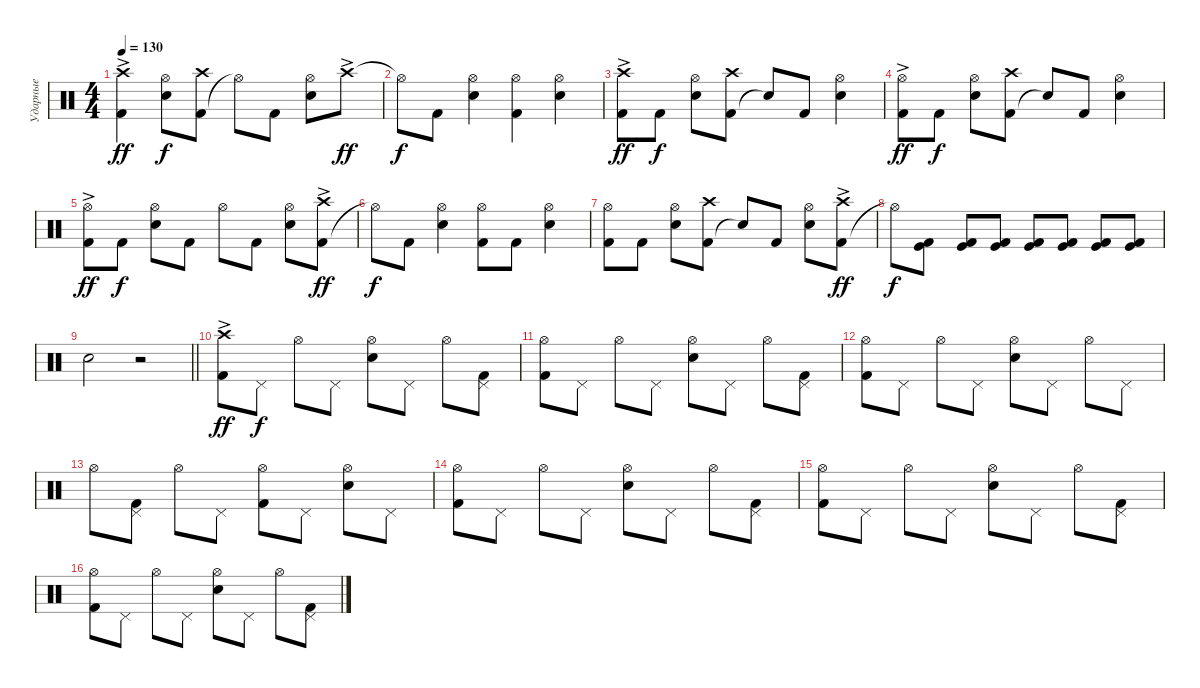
\track ("Ударные" "Ударные") {instrument percussion}
\staff {score}
\articulation defaults
\ts (4 4)
\tempo 130
\clef neutral
\ks c
("Kick (hit) 2" "Crash high (hit)"{ac}).4{dy ff} ("Snare (hit) 2" "Hi-Hat (open)").8{dy f} ("Kick (hit) 2" "Crash high (hit)").8 "Hi-Hat (open)"{t}.8 "Kick (hit) 2".8 ("Snare (hit) 2" "Hi-Hat (open)").8 "Crash high (hit)"{ac}.8{dy ff} |
"Hi-Hat (open)"{t}.8{dy f} "Kick (hit) 2".8 ("Snare (hit) 2" "Hi-Hat (open)").4 ("Kick (hit) 2" "Hi-Hat (open)").4 ("Snare (hit) 2" "Hi-Hat (open)").4 |
("Kick (hit) 2" "Crash high (hit)"{ac}).8{dy ff} "Kick (hit) 2".8{dy f} ("Snare (hit) 2" "Hi-Hat (open)").8 ("Kick (hit) 2" "Crash high (hit)").8 "Snare (hit)"{t}.8 "Kick (hit) 2".8 ("Snare (hit) 2" "Hi-Hat (open)").4 |
("Kick (hit) 2" "Hi-Hat (open)"{ac}).8{dy ff} "Kick (hit) 2".8{dy f} ("Snare (hit) 2" "Hi-Hat (open)").8 ("Kick (hit) 2" "Crash high (hit)").8 "Snare (hit)"{t}.8 "Kick (hit) 2".8 ("Snare (hit) 2" "Hi-Hat (open)").4 |
("Kick (hit) 2" "Hi-Hat (open)"{ac}).8{dy ff} "Kick (hit) 2".8{dy f} ("Snare (hit) 2" "Hi-Hat (open)").8 "Kick (hit) 2".8 "Hi-Hat (open)".8 "Kick (hit) 2".8 ("Snare (hit) 2" "Hi-Hat (open)").8 ("Kick (hit) 2" "Crash high (hit)"{ac}).8{dy ff} |
"Hi-Hat (open)"{t}.8{dy f} "Kick (hit) 2".8 ("Snare (hit) 2" "Hi-Hat (open)").4 ("Kick (hit) 2" "Hi-Hat (open)").8 "Kick (hit) 2".8 ("Snare (hit) 2" "Hi-Hat (open)").4 |
("Kick (hit) 2" "Hi-Hat (open)").8 "Kick (hit) 2".8 ("Snare (hit) 2" "Hi-Hat (open)").8 ("Kick (hit) 2" "Crash high (hit)").8 "Snare (hit)"{t}.8 "Kick (hit) 2".8 ("Snare (hit) 2" "Hi-Hat (open)").8 ("Kick (hit) 2" "Crash high (hit)"{ac}).8{dy ff} |
"Hi-Hat (open)"{t}.8{dy f} ("Kick (hit) 2" "Kick (hit)").8 ("Kick (hit) 2" "Kick (hit)").8 ("Kick (hit) 2" "Kick (hit)").8 ("Kick (hit) 2" "Kick (hit)").8 ("Kick (hit) 2" "Kick (hit)").8 ("Kick (hit) 2" "Kick (hit)").8 ("Kick (hit) 2" "Kick (hit)").8 |
\barLineRight lightlight "Snare (hit) 2".2
r.2 |
("Kick (hit) 2" "Crash high (hit)"{ac}).8{dy ff} "Pedal Hi-Hat (hit)".8{dy f} "Hi-Hat (open)".8 "Pedal Hi-Hat (hit)".8 ("Snare (hit) 2" "Hi-Hat (open)").8 "Pedal Hi-Hat (hit)".8 "Hi-Hat (open)".8 ("Kick (hit) 2" "Pedal Hi-Hat (hit)").8 |
("Kick (hit) 2" "Hi-Hat (open)").8 "Pedal Hi-Hat (hit)".8 "Hi-Hat (open)".8 "Pedal Hi-Hat (hit)".8 ("Snare (hit) 2" "Hi-Hat (open)").8 "Pedal Hi-Hat (hit)".8 "Hi-Hat (open)".8 ("Kick (hit) 2" "Pedal Hi-Hat (hit)").8 |
("Kick (hit) 2" "Hi-Hat (open)").8 "Pedal Hi-Hat (hit)".8 "Hi-Hat (open)".8 "Pedal Hi-Hat (hit)".8 ("Snare (hit) 2" "Hi-Hat (open)").8 "Pedal Hi-Hat (hit)".8 "Hi-Hat (open)".8 "Pedal Hi-Hat (hit)".8 |
"Hi-Hat (open)".8 ("Kick (hit) 2" "Pedal Hi-Hat (hit)").8 "Hi-Hat (open)".8 "Pedal Hi-Hat (hit)".8 ("Kick (hit) 2" "Hi-Hat (open)").8 "Pedal Hi-Hat (hit)".8 ("Snare (hit) 2" "Hi-Hat (open)").8 "Pedal Hi-Hat (hit)".8 |
("Kick (hit) 2" "Hi-Hat (open)").8 "Pedal Hi-Hat (hit)".8 "Hi-Hat (open)".8 "Pedal Hi-Hat (hit)".8 ("Snare (hit) 2" "Hi-Hat (open)").8 "Pedal Hi-Hat (hit)".8 "Hi-Hat (open)".8 ("Kick (hit) 2" "Pedal Hi-Hat (hit)").8 |
("Kick (hit) 2" "Hi-Hat (open)").8 "Pedal Hi-Hat (hit)".8 "Hi-Hat (open)".8 "Pedal Hi-Hat (hit)".8 ("Snare (hit) 2" "Hi-Hat (open)").8 "Pedal Hi-Hat (hit)".8 "Hi-Hat (open)".8 ("Kick (hit) 2" "Pedal Hi-Hat (hit)").8 |
("Kick (hit) 2" "Hi-Hat (open)").8 "Pedal Hi-Hat (hit)".8 "Hi-Hat (open)".8 "Pedal Hi-Hat (hit)".8 ("Snare (hit) 2" "Hi-Hat (open)").8 "Pedal Hi-Hat (hit)".8 "Hi-Hat (open)".8 ("Kick (hit) 2" "Pedal Hi-Hat (hit)").8
